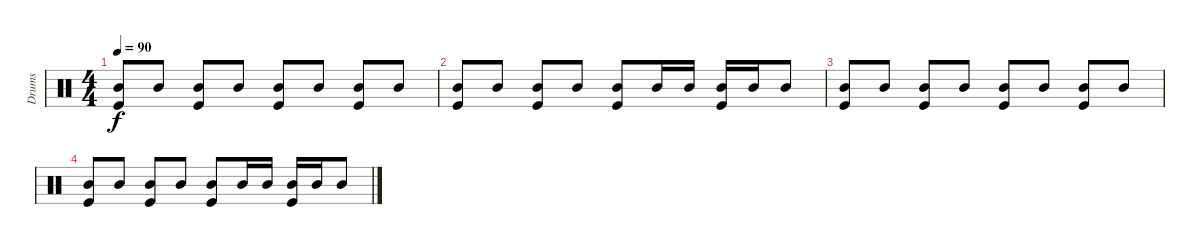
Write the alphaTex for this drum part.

\track ("Drums" "Drums") {instrument percussion}
\staff {score}
\articulation defaults
\ts (4 4)
\tempo 90
\clef neutral
\ks c
("Mid Tom (hit)" "Kick (hit)").8{dy f volume 6} "Mid Tom (hit)".8 ("Mid Tom (hit)" "Kick (hit)").8 "Mid Tom (hit)".8 ("Mid Tom (hit)" "Kick (hit)").8 "Mid Tom (hit)".8 ("Mid Tom (hit)" "Kick (hit)").8 "Mid Tom (hit)".8 |
("Mid Tom (hit)" "Kick (hit)").8 "Mid Tom (hit)".8 ("Mid Tom (hit)" "Kick (hit)").8 "Mid Tom (hit)".8 ("Mid Tom (hit)" "Kick (hit)").8 "Mid Tom (hit)".16 "Mid Tom (hit)".16 ("Mid Tom (hit)" "Kick (hit)").16 "Mid Tom (hit)".16 "Mid Tom (hit)".8 |
("Mid Tom (hit)" "Kick (hit)").8{volume 4} "Mid Tom (hit)".8 ("Mid Tom (hit)" "Kick (hit)").8 "Mid Tom (hit)".8 ("Mid Tom (hit)" "Kick (hit)").8 "Mid Tom (hit)".8 ("Mid Tom (hit)" "Kick (hit)").8 "Mid Tom (hit)".8 |
("Mid Tom (hit)" "Kick (hit)").8 "Mid Tom (hit)".8 ("Mid Tom (hit)" "Kick (hit)").8 "Mid Tom (hit)".8 ("Mid Tom (hit)" "Kick (hit)").8 "Mid Tom (hit)".16 "Mid Tom (hit)".16 ("Mid Tom (hit)" "Kick (hit)").16 "Mid Tom (hit)".16 "Mid Tom (hit)".8
